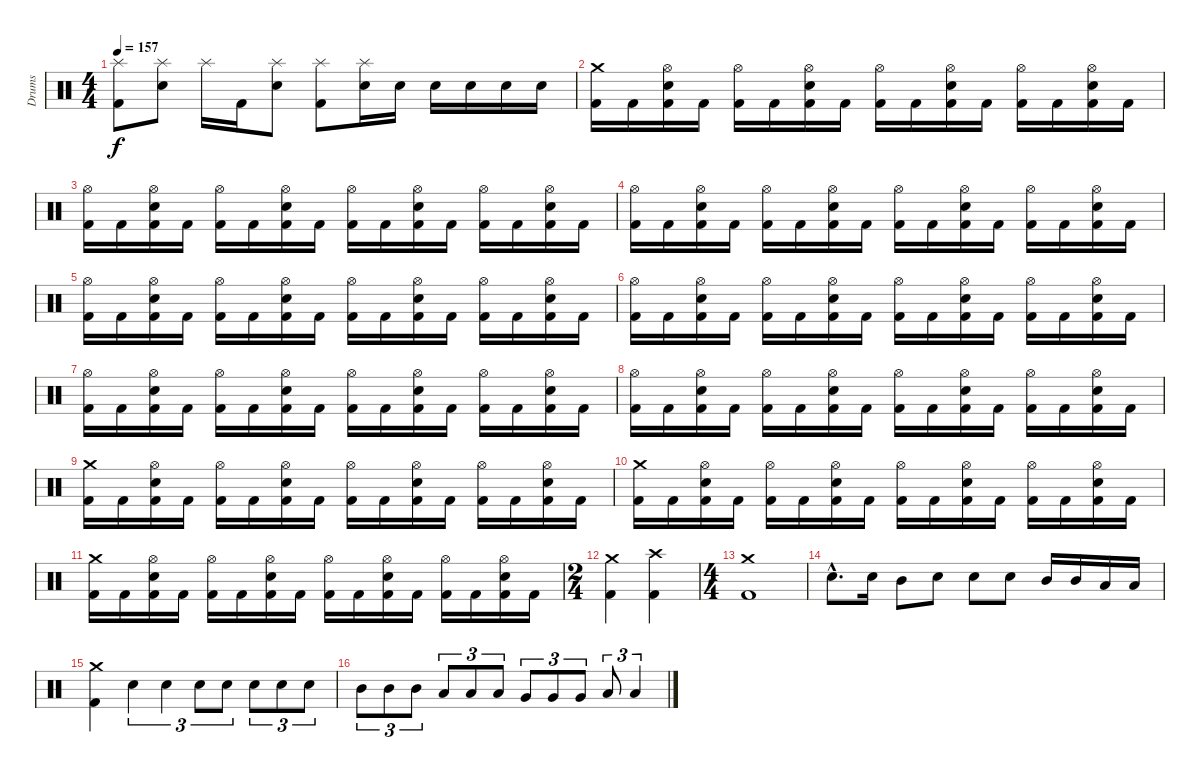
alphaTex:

\track ("Drums" "Drums") {instrument percussion}
\staff {score}
\articulation defaults
\ts (4 4)
\tempo 157
\clef neutral
\ks c
("Kick (hit) 2" "Splash (hit)").8{dy f} ("Electric Snare (hit)" "Splash (hit)").8 "Splash (hit)".16 "Kick (hit) 2".16 ("Electric Snare (hit)" "Splash (hit)").8 ("Kick (hit) 2" "Splash (hit)").8 ("Electric Snare (hit)" "Splash (hit)").16 "Electric Snare (hit)".16 "Electric Snare (hit)".16 "Electric Snare (hit)".16 "Electric Snare (hit)".16 "Electric Snare (hit)".16 |
("Kick (hit) 2" "Crash medium (hit)").16 "Kick (hit) 2".16 ("Kick (hit) 2" "Electric Snare (hit)" "Hi-Hat (open)").16 "Kick (hit) 2".16 ("Kick (hit) 2" "Hi-Hat (open)").16 "Kick (hit) 2".16 ("Kick (hit) 2" "Electric Snare (hit)" "Hi-Hat (open)").16 "Kick (hit) 2".16 ("Kick (hit) 2" "Hi-Hat (open)").16 "Kick (hit) 2".16 ("Kick (hit) 2" "Electric Snare (hit)" "Hi-Hat (open)").16 "Kick (hit) 2".16 ("Kick (hit) 2" "Hi-Hat (open)").16 "Kick (hit) 2".16 ("Kick (hit) 2" "Electric Snare (hit)" "Hi-Hat (open)").16 "Kick (hit) 2".16 |
("Kick (hit) 2" "Hi-Hat (open)").16 "Kick (hit) 2".16 ("Kick (hit) 2" "Electric Snare (hit)" "Hi-Hat (open)").16 "Kick (hit) 2".16 ("Kick (hit) 2" "Hi-Hat (open)").16 "Kick (hit) 2".16 ("Kick (hit) 2" "Electric Snare (hit)" "Hi-Hat (open)").16 "Kick (hit) 2".16 ("Kick (hit) 2" "Hi-Hat (open)").16 "Kick (hit) 2".16 ("Kick (hit) 2" "Electric Snare (hit)" "Hi-Hat (open)").16 "Kick (hit) 2".16 ("Kick (hit) 2" "Hi-Hat (open)").16 "Kick (hit) 2".16 ("Kick (hit) 2" "Electric Snare (hit)" "Hi-Hat (open)").16 "Kick (hit) 2".16 |
("Kick (hit) 2" "Hi-Hat (open)").16 "Kick (hit) 2".16 ("Kick (hit) 2" "Electric Snare (hit)" "Hi-Hat (open)").16 "Kick (hit) 2".16 ("Kick (hit) 2" "Hi-Hat (open)").16 "Kick (hit) 2".16 ("Kick (hit) 2" "Electric Snare (hit)" "Hi-Hat (open)").16 "Kick (hit) 2".16 ("Kick (hit) 2" "Hi-Hat (open)").16 "Kick (hit) 2".16 ("Kick (hit) 2" "Electric Snare (hit)" "Hi-Hat (open)").16 "Kick (hit) 2".16 ("Kick (hit) 2" "Hi-Hat (open)").16 "Kick (hit) 2".16 ("Kick (hit) 2" "Electric Snare (hit)" "Hi-Hat (open)").16 "Kick (hit) 2".16 |
("Kick (hit) 2" "Hi-Hat (open)").16 "Kick (hit) 2".16 ("Kick (hit) 2" "Electric Snare (hit)" "Hi-Hat (open)").16 "Kick (hit) 2".16 ("Kick (hit) 2" "Hi-Hat (open)").16 "Kick (hit) 2".16 ("Kick (hit) 2" "Electric Snare (hit)" "Hi-Hat (open)").16 "Kick (hit) 2".16 ("Kick (hit) 2" "Hi-Hat (open)").16 "Kick (hit) 2".16 ("Kick (hit) 2" "Electric Snare (hit)" "Hi-Hat (open)").16 "Kick (hit) 2".16 ("Kick (hit) 2" "Hi-Hat (open)").16 "Kick (hit) 2".16 ("Kick (hit) 2" "Electric Snare (hit)" "Hi-Hat (open)").16 "Kick (hit) 2".16 |
("Kick (hit) 2" "Hi-Hat (open)").16 "Kick (hit) 2".16 ("Kick (hit) 2" "Electric Snare (hit)" "Hi-Hat (open)").16 "Kick (hit) 2".16 ("Kick (hit) 2" "Hi-Hat (open)").16 "Kick (hit) 2".16 ("Kick (hit) 2" "Electric Snare (hit)" "Hi-Hat (open)").16 "Kick (hit) 2".16 ("Kick (hit) 2" "Hi-Hat (open)").16 "Kick (hit) 2".16 ("Kick (hit) 2" "Electric Snare (hit)" "Hi-Hat (open)").16 "Kick (hit) 2".16 ("Kick (hit) 2" "Hi-Hat (open)").16 "Kick (hit) 2".16 ("Kick (hit) 2" "Electric Snare (hit)" "Hi-Hat (open)").16 "Kick (hit) 2".16 |
("Kick (hit) 2" "Hi-Hat (open)").16 "Kick (hit) 2".16 ("Kick (hit) 2" "Electric Snare (hit)" "Hi-Hat (open)").16 "Kick (hit) 2".16 ("Kick (hit) 2" "Hi-Hat (open)").16 "Kick (hit) 2".16 ("Kick (hit) 2" "Electric Snare (hit)" "Hi-Hat (open)").16 "Kick (hit) 2".16 ("Kick (hit) 2" "Hi-Hat (open)").16 "Kick (hit) 2".16 ("Kick (hit) 2" "Electric Snare (hit)" "Hi-Hat (open)").16 "Kick (hit) 2".16 ("Kick (hit) 2" "Hi-Hat (open)").16 "Kick (hit) 2".16 ("Kick (hit) 2" "Electric Snare (hit)" "Hi-Hat (open)").16 "Kick (hit) 2".16 |
("Kick (hit) 2" "Hi-Hat (open)").16 "Kick (hit) 2".16 ("Kick (hit) 2" "Electric Snare (hit)" "Hi-Hat (open)").16 "Kick (hit) 2".16 ("Kick (hit) 2" "Hi-Hat (open)").16 "Kick (hit) 2".16 ("Kick (hit) 2" "Electric Snare (hit)" "Hi-Hat (open)").16 "Kick (hit) 2".16 ("Kick (hit) 2" "Hi-Hat (open)").16 "Kick (hit) 2".16 ("Kick (hit) 2" "Electric Snare (hit)" "Hi-Hat (open)").16 "Kick (hit) 2".16 ("Kick (hit) 2" "Hi-Hat (open)").16 "Kick (hit) 2".16 ("Kick (hit) 2" "Electric Snare (hit)" "Hi-Hat (open)").16 "Kick (hit) 2".16 |
("Kick (hit) 2" "Crash medium (hit)").16 "Kick (hit) 2".16 ("Kick (hit) 2" "Electric Snare (hit)" "Hi-Hat (open)").16 "Kick (hit) 2".16 ("Kick (hit) 2" "Hi-Hat (open)").16 "Kick (hit) 2".16 ("Kick (hit) 2" "Electric Snare (hit)" "Hi-Hat (open)").16 "Kick (hit) 2".16 ("Kick (hit) 2" "Hi-Hat (open)").16 "Kick (hit) 2".16 ("Kick (hit) 2" "Electric Snare (hit)" "Hi-Hat (open)").16 "Kick (hit) 2".16 ("Kick (hit) 2" "Hi-Hat (open)").16 "Kick (hit) 2".16 ("Kick (hit) 2" "Electric Snare (hit)" "Hi-Hat (open)").16 "Kick (hit) 2".16 |
("Kick (hit) 2" "Crash medium (hit)").16 "Kick (hit) 2".16 ("Kick (hit) 2" "Electric Snare (hit)" "Hi-Hat (open)").16 "Kick (hit) 2".16 ("Kick (hit) 2" "Hi-Hat (open)").16 "Kick (hit) 2".16 ("Kick (hit) 2" "Electric Snare (hit)" "Hi-Hat (open)").16 "Kick (hit) 2".16 ("Kick (hit) 2" "Hi-Hat (open)").16 "Kick (hit) 2".16 ("Kick (hit) 2" "Electric Snare (hit)" "Hi-Hat (open)").16 "Kick (hit) 2".16 ("Kick (hit) 2" "Hi-Hat (open)").16 "Kick (hit) 2".16 ("Kick (hit) 2" "Electric Snare (hit)" "Hi-Hat (open)").16 "Kick (hit) 2".16 |
("Kick (hit) 2" "Crash medium (hit)").16 "Kick (hit) 2".16 ("Kick (hit) 2" "Electric Snare (hit)" "Hi-Hat (open)").16 "Kick (hit) 2".16 ("Kick (hit) 2" "Hi-Hat (open)").16 "Kick (hit) 2".16 ("Kick (hit) 2" "Electric Snare (hit)" "Hi-Hat (open)").16 "Kick (hit) 2".16 ("Kick (hit) 2" "Hi-Hat (open)").16 "Kick (hit) 2".16 ("Kick (hit) 2" "Electric Snare (hit)" "Hi-Hat (open)").16 "Kick (hit) 2".16 ("Kick (hit) 2" "Hi-Hat (open)").16 "Kick (hit) 2".16 ("Kick (hit) 2" "Electric Snare (hit)" "Hi-Hat (open)").16 "Kick (hit) 2".16 |
\ts (2 4)
("Kick (hit) 2" "Crash medium (hit)").4 ("Kick (hit) 2" "Crash high (hit)").4 |
\ts (4 4)
("Kick (hit) 2" "Crash medium (hit)").1 |
"Electric Snare (hit)"{hac}.8{d} "Electric Snare (hit)".16 "Mid Tom (hit)".8 "Electric Snare (hit)".8 "Electric Snare (hit)".8 "Electric Snare (hit)".8 "Mid Tom (hit)".16 "Mid Tom (hit)".16 "Low Tom (hit)".16 "Low Tom (hit)".16 |
("Kick (hit) 2" "Crash medium (hit)").4 "Electric Snare (hit)".4{tu (3 2)} "Electric Snare (hit)".4{tu (3 2)} "Electric Snare (hit)".8{tu (3 2)} "Electric Snare (hit)".8{tu (3 2)} "Electric Snare (hit)".8{tu (3 2)} "Electric Snare (hit)".8{tu (3 2)} "Electric Snare (hit)".8{tu (3 2)} |
"Mid Tom (hit)".8{tu (3 2)} "Mid Tom (hit)".8{tu (3 2)} "Mid Tom (hit)".8{tu (3 2)} "Low Tom (hit)".8{tu (3 2)} "Low Tom (hit)".8{tu (3 2)} "Low Tom (hit)".8{tu (3 2)} "Very Low Tom (hit)".8{tu (3 2)} "Very Low Tom (hit)".8{tu (3 2)} "Very Low Tom (hit)".8{tu (3 2)} "Low Floor Tom (hit)".8{tu (3 2)} "Low Floor Tom (hit)".4{tu (3 2)}
